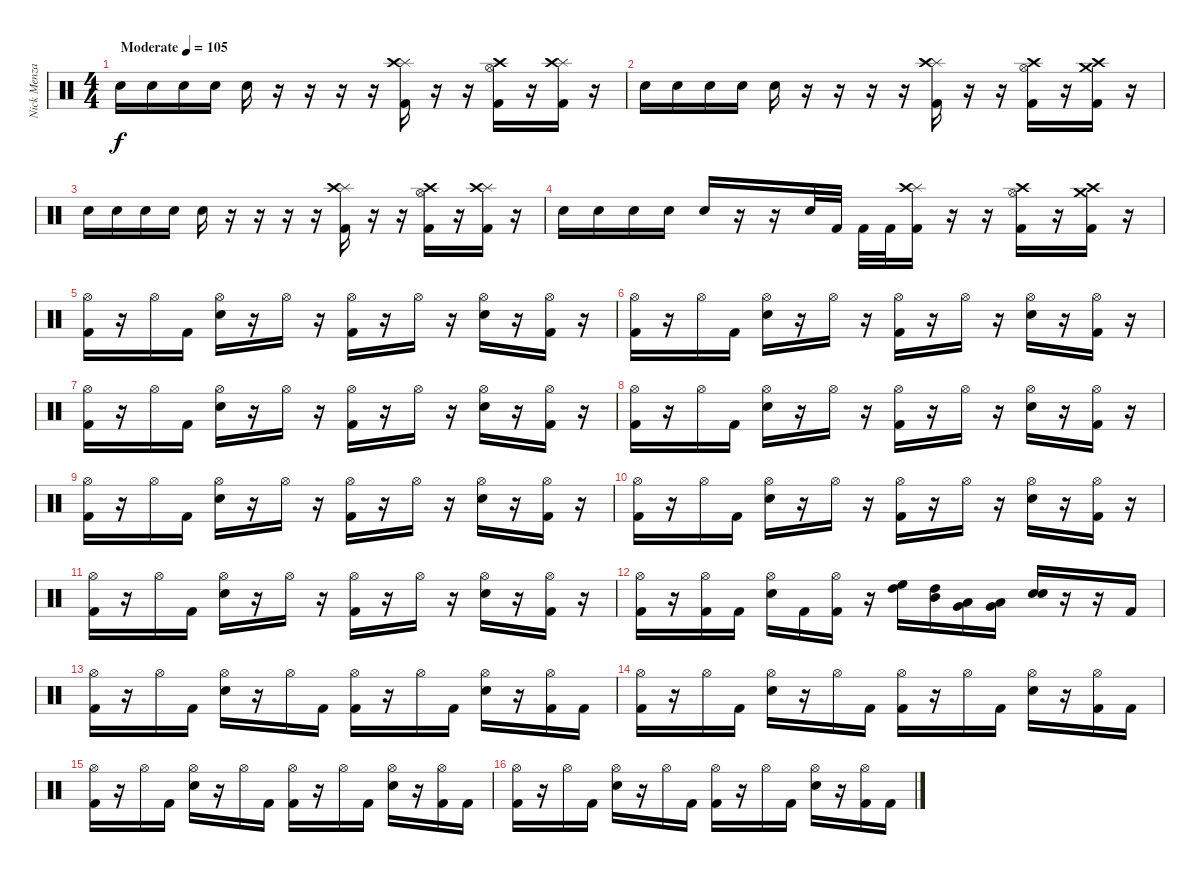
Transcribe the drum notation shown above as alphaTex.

\track ("Nick Menza" "Nick Menza") {instrument percussion}
\staff {score}
\articulation defaults
\ts (4 4)
\tempo (105 "Moderate")
\clef neutral
\ks c "Electric Snare (hit)".16{dy f} "Electric Snare (hit)".16 "Electric Snare (hit)".16 "Electric Snare (hit)".16 "Electric Snare (hit)".16
r.16 r.16 r.16 r.16 ("Splash (hit)" "Crash high (hit)" "Kick (hit) 2").16 r.16 r.16 ("Hi-Hat (open)" "Crash high (hit)" "Kick (hit) 2").16 r.16 ("Splash (hit)" "Crash high (hit)" "Kick (hit) 2").16 r.16 |
"Electric Snare (hit)".16 "Electric Snare (hit)".16 "Electric Snare (hit)".16 "Electric Snare (hit)".16 "Electric Snare (hit)".16 r.16 r.16 r.16 r.16 ("Splash (hit)" "Crash high (hit)" "Kick (hit) 2").16 r.16 r.16 ("Hi-Hat (open)" "Crash high (hit)" "Kick (hit) 2").16 r.16 ("Crash medium (hit)" "Crash high (hit)" "Kick (hit) 2").16 r.16 |
"Electric Snare (hit)".16 "Electric Snare (hit)".16 "Electric Snare (hit)".16 "Electric Snare (hit)".16 "Electric Snare (hit)".16 r.16 r.16 r.16 r.16 ("Splash (hit)" "Crash high (hit)" "Kick (hit) 2").16 r.16 r.16 ("Hi-Hat (open)" "Crash high (hit)" "Kick (hit) 2").16 r.16 ("Splash (hit)" "Crash high (hit)" "Kick (hit) 2").16 r.16 |
"Electric Snare (hit)".16 "Electric Snare (hit)".16 "Electric Snare (hit)".16 "Electric Snare (hit)".16 "Electric Snare (hit)".16 r.16 r.16 "Electric Snare (hit)".32 "Kick (hit) 2".32 "Kick (hit) 2".32 "Kick (hit) 2".32 ("Splash (hit)" "Crash high (hit)" "Kick (hit) 2").16 r.16 r.16 ("Hi-Hat (open)" "Crash high (hit)" "Kick (hit) 2").16 r.16 ("Crash medium (hit)" "Crash high (hit)" "Kick (hit) 2").16 r.16 |
("Hi-Hat (open)" "Kick (hit) 2").16 r.16 "Hi-Hat (open)".16 "Kick (hit) 2".16 ("Hi-Hat (open)" "Electric Snare (hit)").16 r.16 "Hi-Hat (open)".16 r.16 ("Hi-Hat (open)" "Kick (hit) 2").16 r.16 "Hi-Hat (open)".16 r.16 ("Hi-Hat (open)" "Electric Snare (hit)").16 r.16 ("Hi-Hat (open)" "Kick (hit) 2").16 r.16 |
("Hi-Hat (open)" "Kick (hit) 2").16 r.16 "Hi-Hat (open)".16 "Kick (hit) 2".16 ("Hi-Hat (open)" "Electric Snare (hit)").16 r.16 "Hi-Hat (open)".16 r.16 ("Hi-Hat (open)" "Kick (hit) 2").16 r.16 "Hi-Hat (open)".16 r.16 ("Hi-Hat (open)" "Electric Snare (hit)").16 r.16 ("Hi-Hat (open)" "Kick (hit) 2").16 r.16 |
("Hi-Hat (open)" "Kick (hit) 2").16 r.16 "Hi-Hat (open)".16 "Kick (hit) 2".16 ("Hi-Hat (open)" "Electric Snare (hit)").16 r.16 "Hi-Hat (open)".16 r.16 ("Hi-Hat (open)" "Kick (hit) 2").16 r.16 "Hi-Hat (open)".16 r.16 ("Hi-Hat (open)" "Electric Snare (hit)").16 r.16 ("Hi-Hat (open)" "Kick (hit) 2").16 r.16 |
("Hi-Hat (open)" "Kick (hit) 2").16 r.16 "Hi-Hat (open)".16 "Kick (hit) 2".16 ("Hi-Hat (open)" "Electric Snare (hit)").16 r.16 "Hi-Hat (open)".16 r.16 ("Hi-Hat (open)" "Kick (hit) 2").16 r.16 "Hi-Hat (open)".16 r.16 ("Hi-Hat (open)" "Electric Snare (hit)").16 r.16 ("Hi-Hat (open)" "Kick (hit) 2").16 r.16 |
("Hi-Hat (open)" "Kick (hit) 2").16 r.16 "Hi-Hat (open)".16 "Kick (hit) 2".16 ("Hi-Hat (open)" "Electric Snare (hit)").16 r.16 "Hi-Hat (open)".16 r.16 ("Hi-Hat (open)" "Kick (hit) 2").16 r.16 "Hi-Hat (open)".16 r.16 ("Hi-Hat (open)" "Electric Snare (hit)").16 r.16 ("Hi-Hat (open)" "Kick (hit) 2").16 r.16 |
("Hi-Hat (open)" "Kick (hit) 2").16 r.16 "Hi-Hat (open)".16 "Kick (hit) 2".16 ("Hi-Hat (open)" "Electric Snare (hit)").16 r.16 "Hi-Hat (open)".16 r.16 ("Hi-Hat (open)" "Kick (hit) 2").16 r.16 "Hi-Hat (open)".16 r.16 ("Hi-Hat (open)" "Electric Snare (hit)").16 r.16 ("Hi-Hat (open)" "Kick (hit) 2").16 r.16 |
("Hi-Hat (open)" "Kick (hit) 2").16 r.16 "Hi-Hat (open)".16 "Kick (hit) 2".16 ("Hi-Hat (open)" "Electric Snare (hit)").16 r.16 "Hi-Hat (open)".16 r.16 ("Hi-Hat (open)" "Kick (hit) 2").16 r.16 "Hi-Hat (open)".16 r.16 ("Hi-Hat (open)" "Electric Snare (hit)").16 r.16 ("Hi-Hat (open)" "Kick (hit) 2").16 r.16 |
("Hi-Hat (open)" "Kick (hit) 2").16 r.16 ("Hi-Hat (open)" "Kick (hit) 2").16 "Kick (hit) 2".16 ("Hi-Hat (open)" "Electric Snare (hit)").16 "Kick (hit) 2".16 ("Hi-Hat (open)" "Kick (hit) 2").16 r.16 ("High Floor Tom (hit)" "High Tom (hit)").16 ("High Tom (hit)" "Mid Tom (hit)").16 ("Low Tom (hit)" "Very Low Tom (hit)").16 ("Low Tom (hit)" "Very Low Tom (hit)").16 ("Electric Snare (hit)" "Electric Snare (hit)").16 r.16 r.16 "Kick (hit) 2".16 |
("Hi-Hat (open)" "Kick (hit) 2").16 r.16 "Hi-Hat (open)".16 "Kick (hit) 2".16 ("Hi-Hat (open)" "Electric Snare (hit)").16 r.16 "Hi-Hat (open)".16 "Kick (hit) 2".16 ("Hi-Hat (open)" "Kick (hit) 2").16 r.16 "Hi-Hat (open)".16 "Kick (hit) 2".16 ("Hi-Hat (open)" "Electric Snare (hit)").16 r.16 ("Hi-Hat (open)" "Kick (hit) 2").16 "Kick (hit) 2".16 |
("Hi-Hat (open)" "Kick (hit) 2").16 r.16 "Hi-Hat (open)".16 "Kick (hit) 2".16 ("Hi-Hat (open)" "Electric Snare (hit)").16 r.16 "Hi-Hat (open)".16 "Kick (hit) 2".16 ("Hi-Hat (open)" "Kick (hit) 2").16 r.16 "Hi-Hat (open)".16 "Kick (hit) 2".16 ("Hi-Hat (open)" "Electric Snare (hit)").16 r.16 ("Hi-Hat (open)" "Kick (hit) 2").16 "Kick (hit) 2".16 |
("Hi-Hat (open)" "Kick (hit) 2").16 r.16 "Hi-Hat (open)".16 "Kick (hit) 2".16 ("Hi-Hat (open)" "Electric Snare (hit)").16 r.16 "Hi-Hat (open)".16 "Kick (hit) 2".16 ("Hi-Hat (open)" "Kick (hit) 2").16 r.16 "Hi-Hat (open)".16 "Kick (hit) 2".16 ("Hi-Hat (open)" "Electric Snare (hit)").16 r.16 ("Hi-Hat (open)" "Kick (hit) 2").16 "Kick (hit) 2".16 |
("Hi-Hat (open)" "Kick (hit) 2").16 r.16 "Hi-Hat (open)".16 "Kick (hit) 2".16 ("Hi-Hat (open)" "Electric Snare (hit)").16 r.16 "Hi-Hat (open)".16 "Kick (hit) 2".16 ("Hi-Hat (open)" "Kick (hit) 2").16 r.16 "Hi-Hat (open)".16 "Kick (hit) 2".16 ("Hi-Hat (open)" "Electric Snare (hit)").16 r.16 ("Hi-Hat (open)" "Kick (hit) 2").16 "Kick (hit) 2".16
